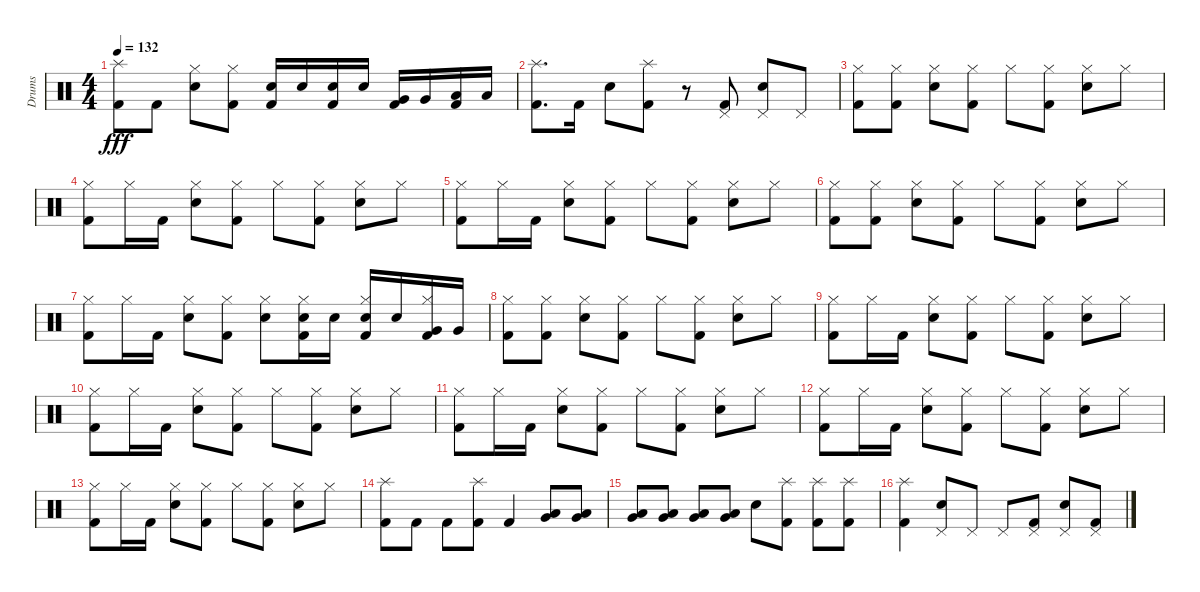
\track ("Drums" "Drums") {instrument percussion}
\staff {score}
\articulation defaults
\ts (4 4)
\tempo 132
\clef neutral
\ks c
("Splash (hit)" "Kick (hit) 2").8{dy fff} "Kick (hit) 2".8 ("Hi-Hat (closed)" "Electric Snare (hit)").8 ("Hi-Hat (closed)" "Kick (hit) 2").8 ("Kick (hit) 2" "Electric Snare (hit)").16 "Electric Snare (hit)".16 ("Kick (hit) 2" "Electric Snare (hit)").16 "Electric Snare (hit)".16 ("Very Low Tom (hit)" "Kick (hit) 2").16 "Very Low Tom (hit)".16 ("Low Floor Tom (hit)" "Kick (hit) 2").16 "Low Floor Tom (hit)".16 |
("Kick (hit) 2" "Splash (hit)").8{d} "Kick (hit) 2".16 "Electric Snare (hit)".8 ("Splash (hit)" "Kick (hit) 2").8 r.8 ("Kick (hit) 2" "Pedal Hi-Hat (hit)").8 ("Electric Snare (hit)" "Pedal Hi-Hat (hit)").8 "Pedal Hi-Hat (hit)".8 |
("Hi-Hat (closed)" "Kick (hit) 2").8 ("Hi-Hat (closed)" "Kick (hit) 2").8 ("Hi-Hat (closed)" "Electric Snare (hit)").8 ("Hi-Hat (closed)" "Kick (hit) 2").8 "Hi-Hat (closed)".8 ("Hi-Hat (closed)" "Kick (hit) 2").8 ("Hi-Hat (closed)" "Electric Snare (hit)").8 "Hi-Hat (closed)".8 |
("Hi-Hat (closed)" "Kick (hit) 2").8 "Hi-Hat (closed)".16 "Kick (hit) 2".16 ("Hi-Hat (closed)" "Electric Snare (hit)").8 ("Hi-Hat (closed)" "Kick (hit) 2").8 "Hi-Hat (closed)".8 ("Hi-Hat (closed)" "Kick (hit) 2").8 ("Hi-Hat (closed)" "Electric Snare (hit)").8 "Hi-Hat (closed)".8 |
("Kick (hit) 2" "Hi-Hat (closed)").8 "Hi-Hat (closed)".16 "Kick (hit) 2".16 ("Electric Snare (hit)" "Hi-Hat (closed)").8 ("Kick (hit) 2" "Hi-Hat (closed)").8 "Hi-Hat (closed)".8 ("Kick (hit) 2" "Hi-Hat (closed)").8 ("Electric Snare (hit)" "Hi-Hat (closed)").8 "Hi-Hat (closed)".8 |
("Kick (hit) 2" "Hi-Hat (closed)").8 ("Kick (hit) 2" "Hi-Hat (closed)").8 ("Electric Snare (hit)" "Hi-Hat (closed)").8 ("Kick (hit) 2" "Hi-Hat (closed)").8 "Hi-Hat (closed)".8 ("Kick (hit) 2" "Hi-Hat (closed)").8 ("Electric Snare (hit)" "Hi-Hat (closed)").8 "Hi-Hat (closed)".8 |
("Kick (hit) 2" "Hi-Hat (closed)").8 "Hi-Hat (closed)".16 "Kick (hit) 2".16 ("Electric Snare (hit)" "Hi-Hat (closed)").8 ("Kick (hit) 2" "Hi-Hat (closed)").8 ("Electric Snare (hit)" "Hi-Hat (closed)").8 ("Kick (hit) 2" "Electric Snare (hit)" "Hi-Hat (closed)").16 "Electric Snare (hit)".16 ("Hi-Hat (closed)" "Kick (hit) 2" "Electric Snare (hit)").16 "Electric Snare (hit)".16 ("Hi-Hat (closed)" "Kick (hit) 2" "Very Low Tom (hit)").16 "Very Low Tom (hit)".16 |
("Hi-Hat (closed)" "Kick (hit) 2").8 ("Hi-Hat (closed)" "Kick (hit) 2").8 ("Hi-Hat (closed)" "Electric Snare (hit)").8 ("Hi-Hat (closed)" "Kick (hit) 2").8 "Hi-Hat (closed)".8 ("Hi-Hat (closed)" "Kick (hit) 2").8 ("Hi-Hat (closed)" "Electric Snare (hit)").8 "Hi-Hat (closed)".8 |
("Hi-Hat (closed)" "Kick (hit) 2").8 "Hi-Hat (closed)".16 "Kick (hit) 2".16 ("Hi-Hat (closed)" "Electric Snare (hit)").8 ("Hi-Hat (closed)" "Kick (hit) 2").8 "Hi-Hat (closed)".8 ("Kick (hit) 2" "Hi-Hat (closed)").8 ("Hi-Hat (closed)" "Electric Snare (hit)").8 "Hi-Hat (closed)".8 |
("Hi-Hat (closed)" "Kick (hit) 2").8 "Hi-Hat (closed)".16 "Kick (hit) 2".16 ("Hi-Hat (closed)" "Electric Snare (hit)").8 ("Hi-Hat (closed)" "Kick (hit) 2").8 "Hi-Hat (closed)".8 ("Kick (hit) 2" "Hi-Hat (closed)").8 ("Hi-Hat (closed)" "Electric Snare (hit)").8 "Hi-Hat (closed)".8 |
("Hi-Hat (closed)" "Kick (hit) 2").8 "Hi-Hat (closed)".16 "Kick (hit) 2".16 ("Hi-Hat (closed)" "Electric Snare (hit)").8 ("Hi-Hat (closed)" "Kick (hit) 2").8 "Hi-Hat (closed)".8 ("Kick (hit) 2" "Hi-Hat (closed)").8 ("Hi-Hat (closed)" "Electric Snare (hit)").8 "Hi-Hat (closed)".8 |
("Hi-Hat (closed)" "Kick (hit) 2").8 "Hi-Hat (closed)".16 "Kick (hit) 2".16 ("Hi-Hat (closed)" "Electric Snare (hit)").8 ("Hi-Hat (closed)" "Kick (hit) 2").8 "Hi-Hat (closed)".8 ("Kick (hit) 2" "Hi-Hat (closed)").8 ("Hi-Hat (closed)" "Electric Snare (hit)").8 "Hi-Hat (closed)".8 |
("Hi-Hat (closed)" "Kick (hit) 2").8 "Hi-Hat (closed)".16 "Kick (hit) 2".16 ("Hi-Hat (closed)" "Electric Snare (hit)").8 ("Hi-Hat (closed)" "Kick (hit) 2").8 "Hi-Hat (closed)".8 ("Kick (hit) 2" "Hi-Hat (closed)").8 ("Hi-Hat (closed)" "Electric Snare (hit)").8 "Hi-Hat (closed)".8 |
("Splash (hit)" "Kick (hit) 2").8 "Kick (hit) 2".8 "Kick (hit) 2".8 ("Splash (hit)" "Kick (hit) 2").8 "Kick (hit) 2".4 ("Low Floor Tom (hit)" "Very Low Tom (hit)").8 ("Low Floor Tom (hit)" "Very Low Tom (hit)").8 |
("Low Floor Tom (hit)" "Very Low Tom (hit)").8 ("Low Floor Tom (hit)" "Very Low Tom (hit)").8 ("Low Floor Tom (hit)" "Very Low Tom (hit)").8 ("Low Floor Tom (hit)" "Very Low Tom (hit)").8 "Electric Snare (hit)".8 ("Splash (hit)" "Kick (hit) 2").8 ("Splash (hit)" "Kick (hit) 2").8 ("Splash (hit)" "Kick (hit) 2").8 |
("Kick (hit) 2" "Splash (hit)").4 ("Electric Snare (hit)" "Pedal Hi-Hat (hit)").8 "Pedal Hi-Hat (hit)".8 "Pedal Hi-Hat (hit)".8 ("Kick (hit) 2" "Pedal Hi-Hat (hit)").8 ("Electric Snare (hit)" "Pedal Hi-Hat (hit)").8 ("Pedal Hi-Hat (hit)" "Kick (hit) 2").8
